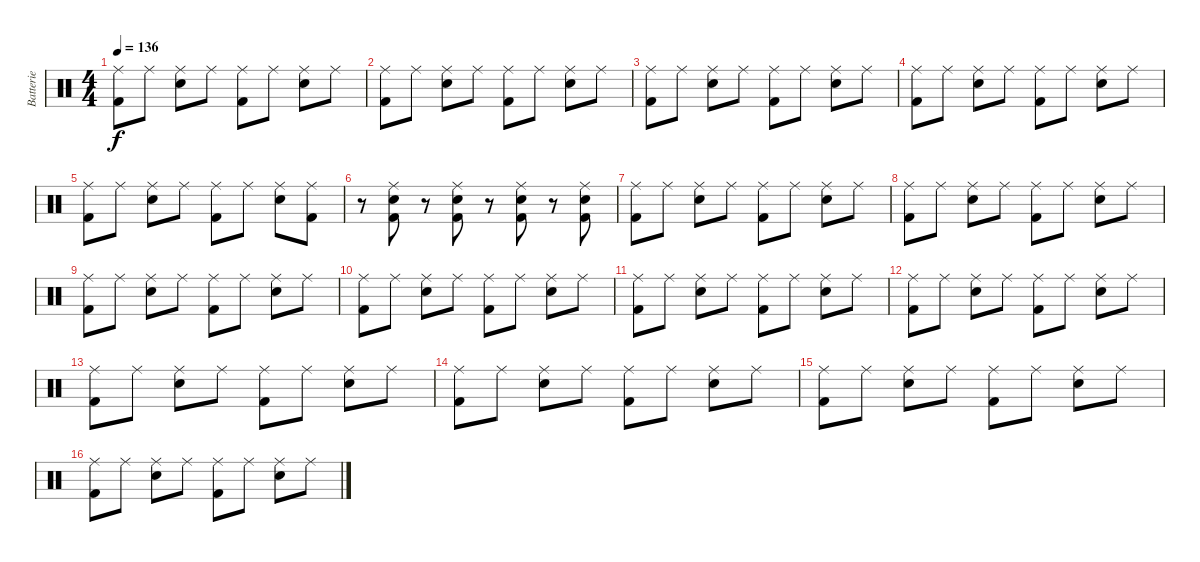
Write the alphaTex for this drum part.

\track ("Batterie" "Batterie") {instrument percussion}
\staff {score}
\articulation defaults
\ts (4 4)
\tempo 136
\clef neutral
\ks c
("Ride (middle)" "Kick (hit) 2").8{dy f} "Ride (middle)".8 ("Ride (middle)" "Snare (hit) 2").8 "Ride (middle)".8 ("Ride (middle)" "Kick (hit) 2").8 "Ride (middle)".8 ("Ride (middle)" "Snare (hit) 2").8 "Ride (middle)".8 |
("Ride (middle)" "Kick (hit) 2").8 "Ride (middle)".8 ("Ride (middle)" "Snare (hit) 2").8 "Ride (middle)".8 ("Ride (middle)" "Kick (hit) 2").8 "Ride (middle)".8 ("Ride (middle)" "Snare (hit) 2").8 "Ride (middle)".8 |
("Ride (middle)" "Kick (hit) 2").8 "Ride (middle)".8 ("Ride (middle)" "Snare (hit) 2").8 "Ride (middle)".8 ("Ride (middle)" "Kick (hit) 2").8 "Ride (middle)".8 ("Ride (middle)" "Snare (hit) 2").8 "Ride (middle)".8 |
("Ride (middle)" "Kick (hit) 2").8 "Ride (middle)".8 ("Ride (middle)" "Snare (hit) 2").8 "Ride (middle)".8 ("Ride (middle)" "Kick (hit) 2").8 "Ride (middle)".8 ("Ride (middle)" "Snare (hit) 2").8 "Ride (middle)".8 |
("Ride (middle)" "Kick (hit) 2").8 "Ride (middle)".8 ("Ride (middle)" "Snare (hit) 2").8 "Ride (middle)".8 ("Ride (middle)" "Kick (hit) 2").8 "Ride (middle)".8 ("Ride (middle)" "Snare (hit) 2").8 ("Ride (middle)" "Kick (hit) 2").8 |
r.8 ("Ride (middle)" "Snare (hit) 2" "Kick (hit) 2").8 r.8 ("Ride (middle)" "Snare (hit) 2" "Kick (hit) 2").8 r.8 ("Ride (middle)" "Snare (hit) 2" "Kick (hit) 2").8 r.8 ("Ride (middle)" "Snare (hit) 2" "Kick (hit) 2").8 |
("Ride (middle)" "Kick (hit) 2").8 "Ride (middle)".8 ("Ride (middle)" "Snare (hit) 2").8 "Ride (middle)".8 ("Ride (middle)" "Kick (hit) 2").8 "Ride (middle)".8 ("Ride (middle)" "Snare (hit) 2").8 "Ride (middle)".8 |
("Ride (middle)" "Kick (hit) 2").8 "Ride (middle)".8 ("Ride (middle)" "Snare (hit) 2").8 "Ride (middle)".8 ("Ride (middle)" "Kick (hit) 2").8 "Ride (middle)".8 ("Ride (middle)" "Snare (hit) 2").8 "Ride (middle)".8 |
("Ride (middle)" "Kick (hit) 2").8 "Ride (middle)".8 ("Ride (middle)" "Snare (hit) 2").8 "Ride (middle)".8 ("Ride (middle)" "Kick (hit) 2").8 "Ride (middle)".8 ("Ride (middle)" "Snare (hit) 2").8 "Ride (middle)".8 |
("Ride (middle)" "Kick (hit) 2").8 "Ride (middle)".8 ("Ride (middle)" "Snare (hit) 2").8 "Ride (middle)".8 ("Ride (middle)" "Kick (hit) 2").8 "Ride (middle)".8 ("Ride (middle)" "Snare (hit) 2").8 "Ride (middle)".8 |
("Ride (middle)" "Kick (hit) 2").8 "Ride (middle)".8 ("Ride (middle)" "Snare (hit) 2").8 "Ride (middle)".8 ("Ride (middle)" "Kick (hit) 2").8 "Ride (middle)".8 ("Ride (middle)" "Snare (hit) 2").8 "Ride (middle)".8 |
("Ride (middle)" "Kick (hit) 2").8 "Ride (middle)".8 ("Ride (middle)" "Snare (hit) 2").8 "Ride (middle)".8 ("Ride (middle)" "Kick (hit) 2").8 "Ride (middle)".8 ("Ride (middle)" "Snare (hit) 2").8 "Ride (middle)".8 |
("Ride (middle)" "Kick (hit) 2").8 "Ride (middle)".8 ("Ride (middle)" "Snare (hit) 2").8 "Ride (middle)".8 ("Ride (middle)" "Kick (hit) 2").8 "Ride (middle)".8 ("Ride (middle)" "Snare (hit) 2").8 "Ride (middle)".8 |
("Ride (middle)" "Kick (hit) 2").8 "Ride (middle)".8 ("Ride (middle)" "Snare (hit) 2").8 "Ride (middle)".8 ("Ride (middle)" "Kick (hit) 2").8 "Ride (middle)".8 ("Ride (middle)" "Snare (hit) 2").8 "Ride (middle)".8 |
("Ride (middle)" "Kick (hit) 2").8 "Ride (middle)".8 ("Ride (middle)" "Snare (hit) 2").8 "Ride (middle)".8 ("Ride (middle)" "Kick (hit) 2").8 "Ride (middle)".8 ("Ride (middle)" "Snare (hit) 2").8 "Ride (middle)".8 |
("Ride (middle)" "Kick (hit) 2").8 "Ride (middle)".8 ("Ride (middle)" "Snare (hit) 2").8 "Ride (middle)".8 ("Ride (middle)" "Kick (hit) 2").8 "Ride (middle)".8 ("Ride (middle)" "Snare (hit) 2").8 "Ride (middle)".8
